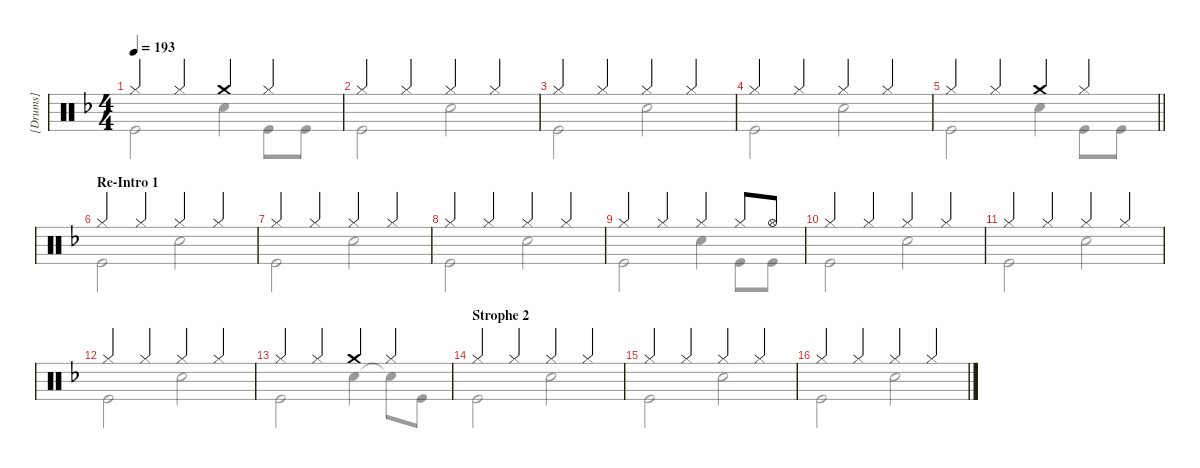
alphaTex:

\hideDynamics
\bracketExtendMode groupsimilarinstruments
\firstSystemTrackNameMode fullname
\otherSystemsTrackNameMode fullname
\otherSystemsTrackNameOrientation horizontal
\track ("[Drums]" "Drums") {instrument percussion}
\staff {score}
\articulation defaults
\voice
\ts (4 4)
\tempo 193
\clef neutral
\ks f "Hi-Hat (closed)".4{dy ff} "Hi-Hat (closed)".4 "Crash medium (hit)".4 "Hi-Hat (closed)".4
|
"Hi-Hat (closed)".4 "Hi-Hat (closed)".4 "Hi-Hat (closed)".4 "Hi-Hat (closed)".4 |
"Hi-Hat (closed)".4 "Hi-Hat (closed)".4 "Hi-Hat (closed)".4 "Hi-Hat (closed)".4 |
"Hi-Hat (closed)".4 "Hi-Hat (closed)".4 "Hi-Hat (closed)".4 "Hi-Hat (closed)".4 |
\barLineRight lightlight "Hi-Hat (closed)".4 "Hi-Hat (closed)".4 "Crash medium (hit)".4 "Hi-Hat (closed)".4
|
\section ("" "Re-Intro 1")
"Hi-Hat (closed)".4 "Hi-Hat (closed)".4 "Hi-Hat (closed)".4 "Hi-Hat (closed)".4 |
"Hi-Hat (closed)".4 "Hi-Hat (closed)".4 "Hi-Hat (closed)".4 "Hi-Hat (closed)".4 |
"Hi-Hat (closed)".4 "Hi-Hat (closed)".4 "Hi-Hat (closed)".4 "Hi-Hat (closed)".4 |
"Hi-Hat (closed)".4 "Hi-Hat (closed)".4 "Hi-Hat (closed)".4 "Hi-Hat (closed)".8 "Hi-Hat (open)".8 |
"Hi-Hat (closed)".4 "Hi-Hat (closed)".4 "Hi-Hat (closed)".4 "Hi-Hat (closed)".4 |
"Hi-Hat (closed)".4 "Hi-Hat (closed)".4 "Hi-Hat (closed)".4 "Hi-Hat (closed)".4 |
"Hi-Hat (closed)".4 "Hi-Hat (closed)".4 "Hi-Hat (closed)".4 "Hi-Hat (closed)".4 |
"Hi-Hat (closed)".4 "Hi-Hat (closed)".4 "Crash medium (hit)".4 "Hi-Hat (closed)".4 |
\section ("" "Strophe 2")
"Hi-Hat (closed)".4 "Hi-Hat (closed)".4 "Hi-Hat (closed)".4 "Hi-Hat (closed)".4 |
"Hi-Hat (closed)".4 "Hi-Hat (closed)".4 "Hi-Hat (closed)".4 "Hi-Hat (closed)".4 |
"Hi-Hat (closed)".4 "Hi-Hat (closed)".4 "Hi-Hat (closed)".4 "Hi-Hat (closed)".4
\voice
\clef neutral
\ottava regular
\simile none
\ks f "Kick (hit)".2{dy f} "Snare (hit) 2".4 "Kick (hit)".8 "Kick (hit)".8
|
"Kick (hit)".2 "Snare (hit) 2".2 |
"Kick (hit)".2 "Snare (hit) 2".2 |
"Kick (hit)".2 "Snare (hit) 2".2 |
\barLineRight lightlight "Kick (hit)".2 "Snare (hit) 2".4 "Kick (hit)".8 "Kick (hit)".8
|
"Kick (hit)".2 "Snare (hit) 2".2 |
"Kick (hit)".2 "Snare (hit) 2".2 |
"Kick (hit)".2 "Snare (hit) 2".2 |
"Kick (hit)".2 "Snare (hit) 2".4 "Kick (hit)".8 "Kick (hit)".8 |
"Kick (hit)".2 "Snare (hit) 2".2 |
"Kick (hit)".2 "Snare (hit) 2".2 |
"Kick (hit)".2 "Snare (hit) 2".2 |
"Kick (hit)".2 "Snare (hit) 2".4 "Snare (hit) 2"{t}.8 "Kick (hit)".8 |
"Kick (hit)".2 "Snare (hit) 2".2 |
"Kick (hit)".2 "Snare (hit) 2".2 |
"Kick (hit)".2 "Snare (hit) 2".2
